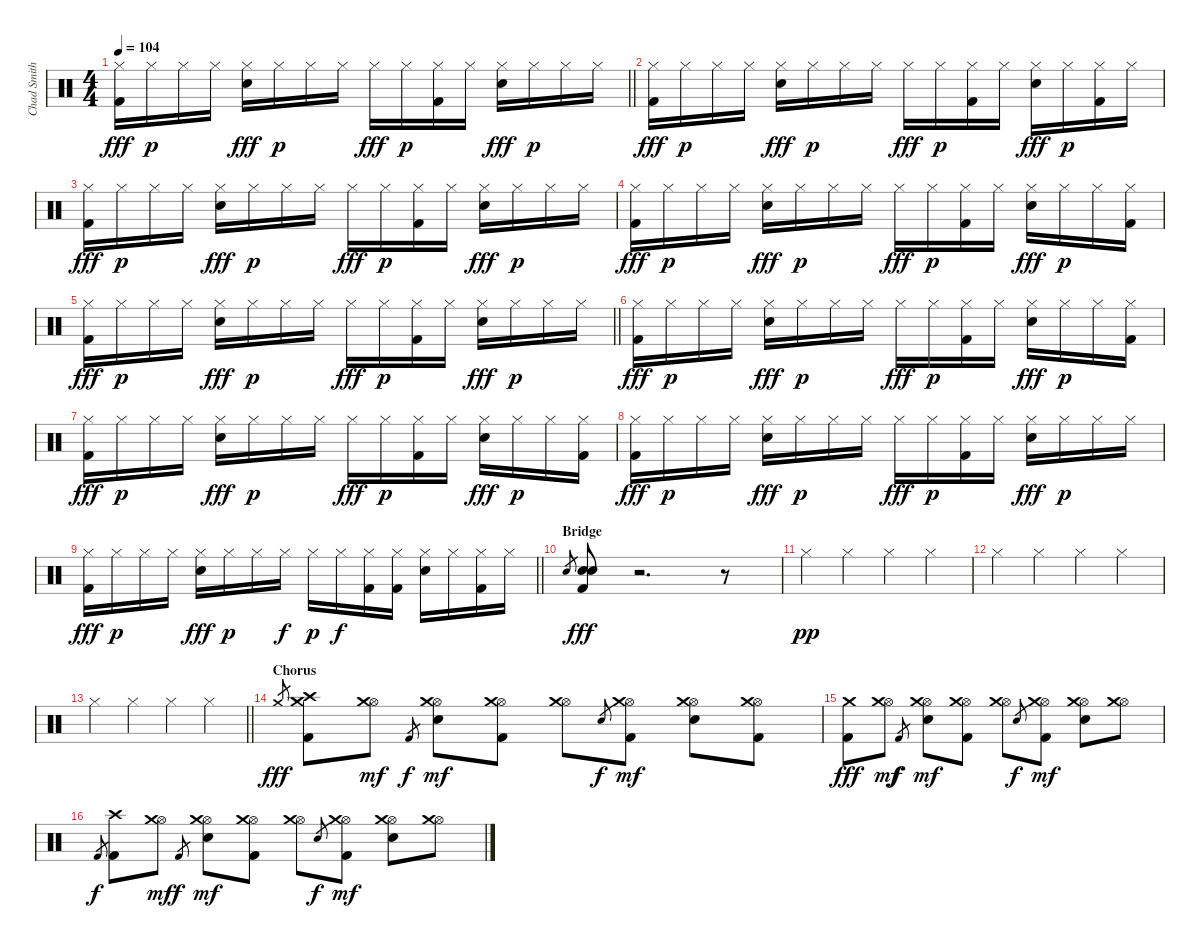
\track ("Chad Smith" "Chad Smith") {instrument percussion}
\staff {score}
\articulation defaults
\ts (4 4)
\tempo 104
\clef neutral
\barLineRight lightlight
\ks c
("Hi-Hat (closed)" "Kick (hit) 2").16{dy fff} "Hi-Hat (closed)".16{dy p} "Hi-Hat (closed)".16 "Hi-Hat (closed)".16 ("Hi-Hat (closed)" "Electric Snare (hit)").16{dy fff} "Hi-Hat (closed)".16{dy p} "Hi-Hat (closed)".16 "Hi-Hat (closed)".16 "Hi-Hat (closed)".16{dy fff} "Hi-Hat (closed)".16{dy p} ("Hi-Hat (closed)" "Kick (hit) 2").16 "Hi-Hat (closed)".16 ("Hi-Hat (closed)" "Electric Snare (hit)").16{dy fff} "Hi-Hat (closed)".16{dy p} "Hi-Hat (closed)".16 "Hi-Hat (closed)".16 |
("Hi-Hat (closed)" "Kick (hit) 2").16{dy fff} "Hi-Hat (closed)".16{dy p} "Hi-Hat (closed)".16 "Hi-Hat (closed)".16 ("Hi-Hat (closed)" "Electric Snare (hit)").16{dy fff} "Hi-Hat (closed)".16{dy p} "Hi-Hat (closed)".16 "Hi-Hat (closed)".16 "Hi-Hat (closed)".16{dy fff} "Hi-Hat (closed)".16{dy p} ("Hi-Hat (closed)" "Kick (hit) 2").16 "Hi-Hat (closed)".16 ("Hi-Hat (closed)" "Electric Snare (hit)").16{dy fff} "Hi-Hat (closed)".16{dy p} ("Hi-Hat (closed)" "Kick (hit) 2").16 "Hi-Hat (closed)".16 |
("Hi-Hat (closed)" "Kick (hit) 2").16{dy fff} "Hi-Hat (closed)".16{dy p} "Hi-Hat (closed)".16 "Hi-Hat (closed)".16 ("Hi-Hat (closed)" "Electric Snare (hit)").16{dy fff} "Hi-Hat (closed)".16{dy p} "Hi-Hat (closed)".16 "Hi-Hat (closed)".16 "Hi-Hat (closed)".16{dy fff} "Hi-Hat (closed)".16{dy p} ("Hi-Hat (closed)" "Kick (hit) 2").16 "Hi-Hat (closed)".16 ("Hi-Hat (closed)" "Electric Snare (hit)").16{dy fff} "Hi-Hat (closed)".16{dy p} "Hi-Hat (closed)".16 "Hi-Hat (closed)".16 |
("Hi-Hat (closed)" "Kick (hit) 2").16{dy fff} "Hi-Hat (closed)".16{dy p} "Hi-Hat (closed)".16 "Hi-Hat (closed)".16 ("Hi-Hat (closed)" "Electric Snare (hit)").16{dy fff} "Hi-Hat (closed)".16{dy p} "Hi-Hat (closed)".16 "Hi-Hat (closed)".16 "Hi-Hat (closed)".16{dy fff} "Hi-Hat (closed)".16{dy p} ("Hi-Hat (closed)" "Kick (hit) 2").16 "Hi-Hat (closed)".16 ("Hi-Hat (closed)" "Electric Snare (hit)").16{dy fff} "Hi-Hat (closed)".16{dy p} "Hi-Hat (closed)".16 ("Hi-Hat (closed)" "Kick (hit) 2").16 |
\barLineRight lightlight
("Hi-Hat (closed)" "Kick (hit) 2").16{dy fff} "Hi-Hat (closed)".16{dy p} "Hi-Hat (closed)".16 "Hi-Hat (closed)".16 ("Hi-Hat (closed)" "Electric Snare (hit)").16{dy fff} "Hi-Hat (closed)".16{dy p} "Hi-Hat (closed)".16 "Hi-Hat (closed)".16 "Hi-Hat (closed)".16{dy fff} "Hi-Hat (closed)".16{dy p} ("Hi-Hat (closed)" "Kick (hit) 2").16 "Hi-Hat (closed)".16 ("Hi-Hat (closed)" "Electric Snare (hit)").16{dy fff} "Hi-Hat (closed)".16{dy p} "Hi-Hat (closed)".16 "Hi-Hat (closed)".16 |
("Hi-Hat (closed)" "Kick (hit) 2").16{dy fff} "Hi-Hat (closed)".16{dy p} "Hi-Hat (closed)".16 "Hi-Hat (closed)".16 ("Hi-Hat (closed)" "Electric Snare (hit)").16{dy fff} "Hi-Hat (closed)".16{dy p} "Hi-Hat (closed)".16 "Hi-Hat (closed)".16 "Hi-Hat (closed)".16{dy fff} "Hi-Hat (closed)".16{dy p} ("Hi-Hat (closed)" "Kick (hit) 2").16 "Hi-Hat (closed)".16 ("Hi-Hat (closed)" "Electric Snare (hit)").16{dy fff} "Hi-Hat (closed)".16{dy p} "Hi-Hat (closed)".16 ("Hi-Hat (closed)" "Kick (hit) 2").16 |
("Hi-Hat (closed)" "Kick (hit) 2").16{dy fff} "Hi-Hat (closed)".16{dy p} "Hi-Hat (closed)".16 "Hi-Hat (closed)".16 ("Hi-Hat (closed)" "Electric Snare (hit)").16{dy fff} "Hi-Hat (closed)".16{dy p} "Hi-Hat (closed)".16 "Hi-Hat (closed)".16 "Hi-Hat (closed)".16{dy fff} "Hi-Hat (closed)".16{dy p} ("Hi-Hat (closed)" "Kick (hit) 2").16 "Hi-Hat (closed)".16 ("Hi-Hat (closed)" "Electric Snare (hit)").16{dy fff} "Hi-Hat (closed)".16{dy p} "Hi-Hat (closed)".16 ("Hi-Hat (closed)" "Kick (hit) 2").16 |
("Hi-Hat (closed)" "Kick (hit) 2").16{dy fff} "Hi-Hat (closed)".16{dy p} "Hi-Hat (closed)".16 "Hi-Hat (closed)".16 ("Hi-Hat (closed)" "Electric Snare (hit)").16{dy fff} "Hi-Hat (closed)".16{dy p} "Hi-Hat (closed)".16 "Hi-Hat (closed)".16 "Hi-Hat (closed)".16{dy fff} "Hi-Hat (closed)".16{dy p} ("Hi-Hat (closed)" "Kick (hit) 2").16 "Hi-Hat (closed)".16 ("Hi-Hat (closed)" "Electric Snare (hit)").16{dy fff} "Hi-Hat (closed)".16{dy p} "Hi-Hat (closed)".16 "Hi-Hat (closed)".16 |
\barLineRight lightlight
("Hi-Hat (closed)" "Kick (hit) 2").16{dy fff} "Hi-Hat (closed)".16{dy p} "Hi-Hat (closed)".16 "Hi-Hat (closed)".16 ("Hi-Hat (closed)" "Electric Snare (hit)").16{dy fff} "Hi-Hat (closed)".16{dy p} "Hi-Hat (closed)".16 "Hi-Hat (closed)".16{dy f} "Hi-Hat (closed)".16{dy p} "Hi-Hat (closed)".16{dy f} ("Hi-Hat (closed)" "Kick (hit) 2").16 ("Hi-Hat (closed)" "Kick (hit) 2").16 ("Hi-Hat (closed)" "Electric Snare (hit)").16 "Hi-Hat (closed)".16 ("Hi-Hat (closed)" "Kick (hit) 2").16 "Hi-Hat (closed)".16 |
\section ("" "Bridge")
"Electric Snare (hit)".8{gr} ("Kick (hit) 2" "Electric Snare (hit)" "Electric Snare (hit)").8{dy fff} r.2{d} r.8 |
"Hi-Hat (closed)".4{dy pp} "Hi-Hat (closed)".4 "Hi-Hat (closed)".4 "Hi-Hat (closed)".4 |
"Hi-Hat (closed)".4 "Hi-Hat (closed)".4 "Hi-Hat (closed)".4 "Hi-Hat (closed)".4 |
\barLineRight lightlight "Hi-Hat (closed)".4 "Hi-Hat (closed)".4 "Hi-Hat (closed)".4 "Hi-Hat (closed)".4
|
\section ("" "Chorus")
"Crash medium (hit)".8{gr dy fff} ("Kick (hit) 2" "Crash medium (hit)" "Crash high (hit)").8 ("Hi-Hat (open)" "Crash medium (hit)").8{dy mf} "Kick (hit) 2".8{gr dy f} ("Hi-Hat (open)" "Electric Snare (hit)" "Crash medium (hit)").8{dy mf} ("Hi-Hat (open)" "Kick (hit) 2" "Crash medium (hit)").8 ("Hi-Hat (open)" "Crash medium (hit)").8 "Electric Snare (hit)".8{gr dy f} ("Hi-Hat (open)" "Kick (hit) 2" "Crash medium (hit)").8{dy mf} ("Hi-Hat (open)" "Electric Snare (hit)" "Crash medium (hit)").8 ("Hi-Hat (open)" "Kick (hit) 2" "Crash medium (hit)").8 |
("Kick (hit) 2" "Crash medium (hit)").8{dy fff} ("Hi-Hat (open)" "Crash medium (hit)").8{dy mf} "Kick (hit) 2".8{gr dy f} ("Hi-Hat (open)" "Electric Snare (hit)" "Crash medium (hit)").8{dy mf} ("Hi-Hat (open)" "Kick (hit) 2" "Crash medium (hit)").8 ("Hi-Hat (open)" "Crash medium (hit)").8 "Electric Snare (hit)".8{gr dy f} ("Hi-Hat (open)" "Kick (hit) 2" "Crash medium (hit)").8{dy mf} ("Hi-Hat (open)" "Electric Snare (hit)" "Crash medium (hit)").8 ("Hi-Hat (open)" "Crash medium (hit)").8 |
"Kick (hit) 2".8{gr dy f} ("Kick (hit) 2" "Crash high (hit)").8 ("Hi-Hat (open)" "Crash medium (hit)").8{dy mf} "Kick (hit) 2".8{gr dy f} ("Hi-Hat (open)" "Electric Snare (hit)" "Crash medium (hit)").8{dy mf} ("Hi-Hat (open)" "Kick (hit) 2" "Crash medium (hit)").8 ("Hi-Hat (open)" "Crash medium (hit)").8 "Electric Snare (hit)".8{gr dy f} ("Hi-Hat (open)" "Kick (hit) 2" "Crash medium (hit)").8{dy mf} ("Hi-Hat (open)" "Electric Snare (hit)" "Crash medium (hit)").8 ("Hi-Hat (open)" "Crash medium (hit)").8
